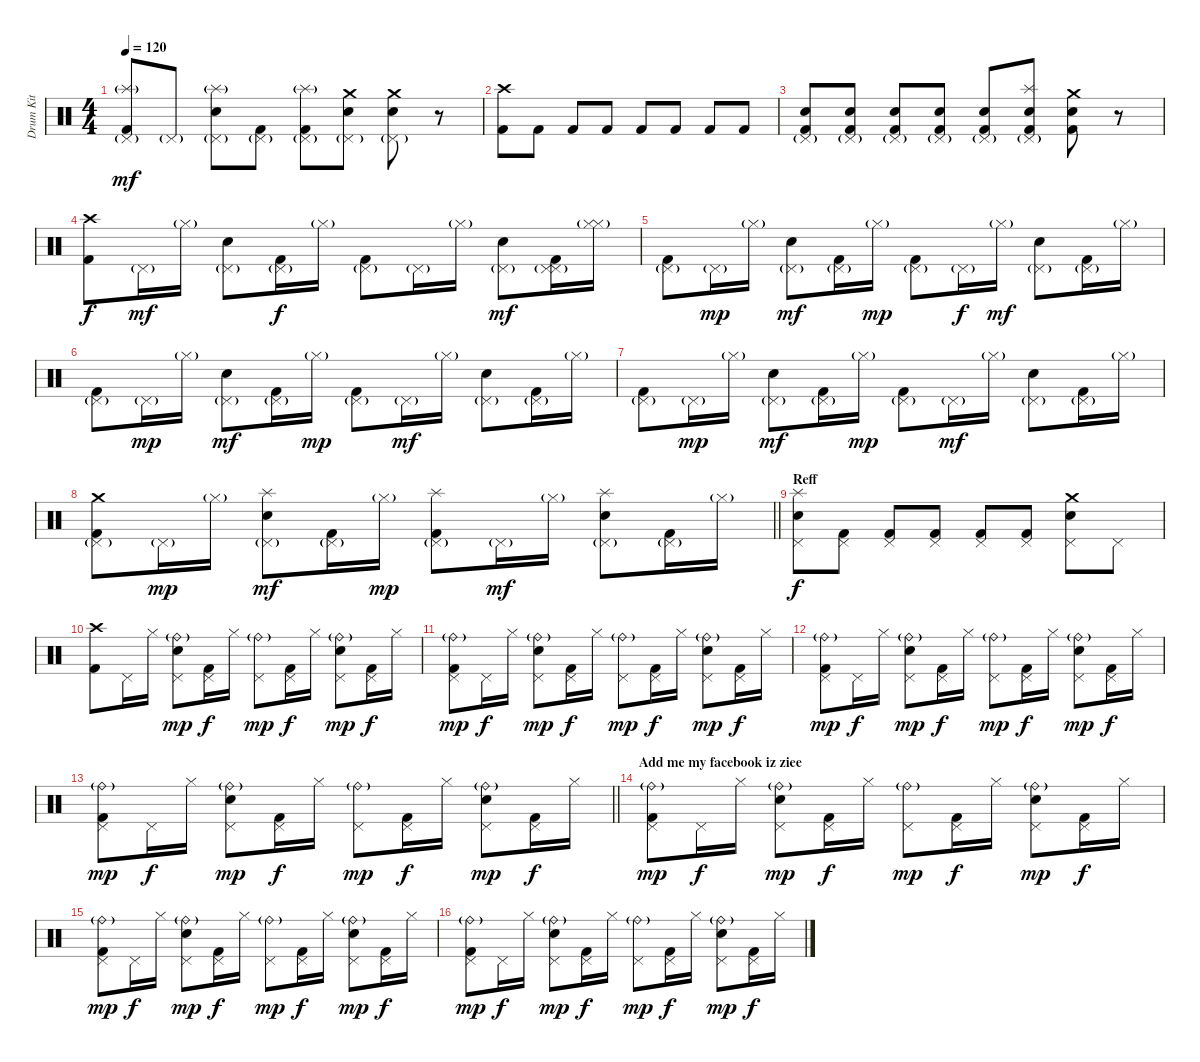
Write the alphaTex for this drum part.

\track ("Drum Kit" "Drum Kit") {instrument percussion}
\staff {score}
\articulation defaults
\ts (4 4)
\tempo 120
\clef neutral
\ks c
("Kick (hit) 2" "Splash (hit)"{g} "Pedal Hi-Hat (hit)"{g}).8{dy mf} "Pedal Hi-Hat (hit)"{g}.8 ("Electric Snare (hit)" "Splash (hit)"{g} "Pedal Hi-Hat (hit)"{g}).8 ("Kick (hit) 2" "Pedal Hi-Hat (hit)"{g}).8 ("Kick (hit) 2" "Splash (hit)"{g} "Pedal Hi-Hat (hit)"{g}).8 ("Electric Snare (hit)" "Crash medium (hit)" "Pedal Hi-Hat (hit)"{g}).8 ("Electric Snare (hit)" "Crash medium (hit)" "Pedal Hi-Hat (hit)"{g}).8 r.8 |
("Kick (hit) 2" "Crash high (hit)").8 "Kick (hit) 2".8 "Kick (hit) 2".8 "Kick (hit) 2".8 "Kick (hit) 2".8 "Kick (hit) 2".8 "Kick (hit) 2".8 "Kick (hit) 2".8 |
("Electric Snare (hit)" "Kick (hit) 2" "Pedal Hi-Hat (hit)"{g}).8 ("Electric Snare (hit)" "Kick (hit) 2" "Pedal Hi-Hat (hit)"{g}).8 ("Electric Snare (hit)" "Kick (hit) 2" "Pedal Hi-Hat (hit)"{g}).8 ("Electric Snare (hit)" "Kick (hit) 2" "Pedal Hi-Hat (hit)"{g}).8 ("Pedal Hi-Hat (hit)"{g} "Electric Snare (hit)" "Kick (hit) 2").8 ("Splash (hit)" "Pedal Hi-Hat (hit)"{g} "Electric Snare (hit)" "Kick (hit) 2").8 ("Crash medium (hit)" "Electric Snare (hit)" "Kick (hit) 2").8 r.8 |
("Crash high (hit)" "Kick (hit) 2").8{dy f} "Pedal Hi-Hat (hit)"{g}.16{dy mf} "Hi-Hat (closed)"{g}.16 ("Pedal Hi-Hat (hit)"{g} "Electric Snare (hit)").8 ("Kick (hit) 2" "Pedal Hi-Hat (hit)"{g}).16{dy f} "Hi-Hat (closed)"{g}.16 ("Kick (hit) 2" "Pedal Hi-Hat (hit)"{g}).8 "Pedal Hi-Hat (hit)"{g}.16 "Hi-Hat (closed)"{g}.16 ("Pedal Hi-Hat (hit)"{g} "Electric Snare (hit)").8{dy mf} ("Kick (hit) 2" "Pedal Hi-Hat (hit)" "Pedal Hi-Hat (hit)"{g}).16 ("Hi-Hat (closed)" "Hi-Hat (closed)"{g}).16 |
("Pedal Hi-Hat (hit)"{g} "Kick (hit) 2").8 "Pedal Hi-Hat (hit)"{g}.16{dy mp} "Hi-Hat (closed)"{g}.16 ("Pedal Hi-Hat (hit)"{g} "Electric Snare (hit)").8{dy mf} ("Pedal Hi-Hat (hit)"{g} "Kick (hit) 2").16 "Hi-Hat (closed)"{g}.16{dy mp} ("Kick (hit) 2" "Pedal Hi-Hat (hit)"{g}).8 "Pedal Hi-Hat (hit)"{g}.16{dy f} "Hi-Hat (closed)"{g}.16{dy mf} ("Pedal Hi-Hat (hit)"{g} "Electric Snare (hit)").8 ("Pedal Hi-Hat (hit)"{g} "Kick (hit) 2").16 "Hi-Hat (closed)"{g}.16 |
("Pedal Hi-Hat (hit)"{g} "Kick (hit) 2").8 "Pedal Hi-Hat (hit)"{g}.16{dy mp} "Hi-Hat (closed)"{g}.16 ("Pedal Hi-Hat (hit)"{g} "Electric Snare (hit)").8{dy mf} ("Pedal Hi-Hat (hit)"{g} "Kick (hit) 2").16 "Hi-Hat (closed)"{g}.16{dy mp} ("Kick (hit) 2" "Pedal Hi-Hat (hit)"{g}).8 "Pedal Hi-Hat (hit)"{g}.16{dy mf} "Hi-Hat (closed)"{g}.16 ("Pedal Hi-Hat (hit)"{g} "Electric Snare (hit)").8 ("Pedal Hi-Hat (hit)"{g} "Kick (hit) 2").16 "Hi-Hat (closed)"{g}.16 |
("Pedal Hi-Hat (hit)"{g} "Kick (hit) 2").8 "Pedal Hi-Hat (hit)"{g}.16{dy mp} "Hi-Hat (closed)"{g}.16 ("Pedal Hi-Hat (hit)"{g} "Electric Snare (hit)").8{dy mf} ("Pedal Hi-Hat (hit)"{g} "Kick (hit) 2").16 "Hi-Hat (closed)"{g}.16{dy mp} ("Kick (hit) 2" "Pedal Hi-Hat (hit)"{g}).8 "Pedal Hi-Hat (hit)"{g}.16{dy mf} "Hi-Hat (closed)"{g}.16 ("Pedal Hi-Hat (hit)"{g} "Electric Snare (hit)").8 ("Pedal Hi-Hat (hit)"{g} "Kick (hit) 2").16 "Hi-Hat (closed)"{g}.16 |
\barLineRight lightlight
("Pedal Hi-Hat (hit)"{g} "Kick (hit) 2" "Crash medium (hit)").8 "Pedal Hi-Hat (hit)"{g}.16{dy mp} "Hi-Hat (closed)"{g}.16 ("Pedal Hi-Hat (hit)"{g} "Electric Snare (hit)" "Splash (hit)").8{dy mf} ("Pedal Hi-Hat (hit)"{g} "Kick (hit) 2").16 "Hi-Hat (closed)"{g}.16{dy mp} ("Kick (hit) 2" "Pedal Hi-Hat (hit)"{g} "Splash (hit)").8 "Pedal Hi-Hat (hit)"{g}.16{dy mf} "Hi-Hat (closed)"{g}.16 ("Pedal Hi-Hat (hit)"{g} "Electric Snare (hit)" "Splash (hit)").8 ("Pedal Hi-Hat (hit)"{g} "Kick (hit) 2").16 "Hi-Hat (closed)"{g}.16 |
\section ("" "Reff")
("Splash (hit)" "Electric Snare (hit)" "Pedal Hi-Hat (hit)").8{dy f} ("Pedal Hi-Hat (hit)" "Kick (hit) 2").8 ("Pedal Hi-Hat (hit)" "Kick (hit) 2").8 ("Pedal Hi-Hat (hit)" "Kick (hit) 2").8 ("Kick (hit) 2" "Pedal Hi-Hat (hit)").8 ("Pedal Hi-Hat (hit)" "Kick (hit) 2").8 ("Pedal Hi-Hat (hit)" "Electric Snare (hit)" "Crash medium (hit)").8 "Pedal Hi-Hat (hit)".8 |
("Crash high (hit)" "Kick (hit) 2").8 "Pedal Hi-Hat (hit)".16 "Hi-Hat (closed)".16 ("Electric Snare (hit)" "Pedal Hi-Hat (hit)" "Ride (bell)"{g}).8{dy mp} ("Kick (hit) 2" "Pedal Hi-Hat (hit)").16{dy f} "Hi-Hat (closed)".16 ("Pedal Hi-Hat (hit)" "Ride (bell)"{g}).8{dy mp} ("Kick (hit) 2" "Pedal Hi-Hat (hit)").16{dy f} "Hi-Hat (closed)".16 ("Electric Snare (hit)" "Pedal Hi-Hat (hit)" "Ride (bell)"{g}).8{dy mp} ("Kick (hit) 2" "Pedal Hi-Hat (hit)").16{dy f} "Hi-Hat (closed)".16 |
("Kick (hit) 2" "Pedal Hi-Hat (hit)" "Ride (bell)"{g}).8{dy mp} "Pedal Hi-Hat (hit)".16{dy f} "Hi-Hat (closed)".16 ("Electric Snare (hit)" "Pedal Hi-Hat (hit)" "Ride (bell)"{g}).8{dy mp} ("Kick (hit) 2" "Pedal Hi-Hat (hit)").16{dy f} "Hi-Hat (closed)".16 ("Pedal Hi-Hat (hit)" "Ride (bell)"{g}).8{dy mp} ("Kick (hit) 2" "Pedal Hi-Hat (hit)").16{dy f} "Hi-Hat (closed)".16 ("Electric Snare (hit)" "Pedal Hi-Hat (hit)" "Ride (bell)"{g}).8{dy mp} ("Kick (hit) 2" "Pedal Hi-Hat (hit)").16{dy f} "Hi-Hat (closed)".16 |
("Kick (hit) 2" "Pedal Hi-Hat (hit)" "Ride (bell)"{g}).8{dy mp} "Pedal Hi-Hat (hit)".16{dy f} "Hi-Hat (closed)".16 ("Electric Snare (hit)" "Pedal Hi-Hat (hit)" "Ride (bell)"{g}).8{dy mp} ("Kick (hit) 2" "Pedal Hi-Hat (hit)").16{dy f} "Hi-Hat (closed)".16 ("Pedal Hi-Hat (hit)" "Ride (bell)"{g}).8{dy mp} ("Kick (hit) 2" "Pedal Hi-Hat (hit)").16{dy f} "Hi-Hat (closed)".16 ("Electric Snare (hit)" "Pedal Hi-Hat (hit)" "Ride (bell)"{g}).8{dy mp} ("Kick (hit) 2" "Pedal Hi-Hat (hit)").16{dy f} "Hi-Hat (closed)".16 |
\barLineRight lightlight
("Kick (hit) 2" "Pedal Hi-Hat (hit)" "Ride (bell)"{g}).8{dy mp} "Pedal Hi-Hat (hit)".16{dy f} "Hi-Hat (closed)".16 ("Electric Snare (hit)" "Pedal Hi-Hat (hit)" "Ride (bell)"{g}).8{dy mp} ("Kick (hit) 2" "Pedal Hi-Hat (hit)").16{dy f} "Hi-Hat (closed)".16 ("Pedal Hi-Hat (hit)" "Ride (bell)"{g}).8{dy mp} ("Kick (hit) 2" "Pedal Hi-Hat (hit)").16{dy f} "Hi-Hat (closed)".16 ("Electric Snare (hit)" "Pedal Hi-Hat (hit)" "Ride (bell)"{g}).8{dy mp} ("Kick (hit) 2" "Pedal Hi-Hat (hit)").16{dy f} "Hi-Hat (closed)".16 |
\section ("" "Add me my facebook iz ziee")
("Kick (hit) 2" "Pedal Hi-Hat (hit)" "Ride (bell)"{g}).8{dy mp} "Pedal Hi-Hat (hit)".16{dy f} "Hi-Hat (closed)".16 ("Electric Snare (hit)" "Pedal Hi-Hat (hit)" "Ride (bell)"{g}).8{dy mp} ("Kick (hit) 2" "Pedal Hi-Hat (hit)").16{dy f} "Hi-Hat (closed)".16 ("Pedal Hi-Hat (hit)" "Ride (bell)"{g}).8{dy mp} ("Kick (hit) 2" "Pedal Hi-Hat (hit)").16{dy f} "Hi-Hat (closed)".16 ("Electric Snare (hit)" "Pedal Hi-Hat (hit)" "Ride (bell)"{g}).8{dy mp} ("Kick (hit) 2" "Pedal Hi-Hat (hit)").16{dy f} "Hi-Hat (closed)".16 |
("Kick (hit) 2" "Pedal Hi-Hat (hit)" "Ride (bell)"{g}).8{dy mp} "Pedal Hi-Hat (hit)".16{dy f} "Hi-Hat (closed)".16 ("Electric Snare (hit)" "Pedal Hi-Hat (hit)" "Ride (bell)"{g}).8{dy mp} ("Kick (hit) 2" "Pedal Hi-Hat (hit)").16{dy f} "Hi-Hat (closed)".16 ("Pedal Hi-Hat (hit)" "Ride (bell)"{g}).8{dy mp} ("Kick (hit) 2" "Pedal Hi-Hat (hit)").16{dy f} "Hi-Hat (closed)".16 ("Electric Snare (hit)" "Pedal Hi-Hat (hit)" "Ride (bell)"{g}).8{dy mp} ("Kick (hit) 2" "Pedal Hi-Hat (hit)").16{dy f} "Hi-Hat (closed)".16 |
("Kick (hit) 2" "Pedal Hi-Hat (hit)" "Ride (bell)"{g}).8{dy mp} "Pedal Hi-Hat (hit)".16{dy f} "Hi-Hat (closed)".16 ("Electric Snare (hit)" "Pedal Hi-Hat (hit)" "Ride (bell)"{g}).8{dy mp} ("Kick (hit) 2" "Pedal Hi-Hat (hit)").16{dy f} "Hi-Hat (closed)".16 ("Pedal Hi-Hat (hit)" "Ride (bell)"{g}).8{dy mp} ("Kick (hit) 2" "Pedal Hi-Hat (hit)").16{dy f} "Hi-Hat (closed)".16 ("Electric Snare (hit)" "Pedal Hi-Hat (hit)" "Ride (bell)"{g}).8{dy mp} ("Kick (hit) 2" "Pedal Hi-Hat (hit)").16{dy f} "Hi-Hat (closed)".16
